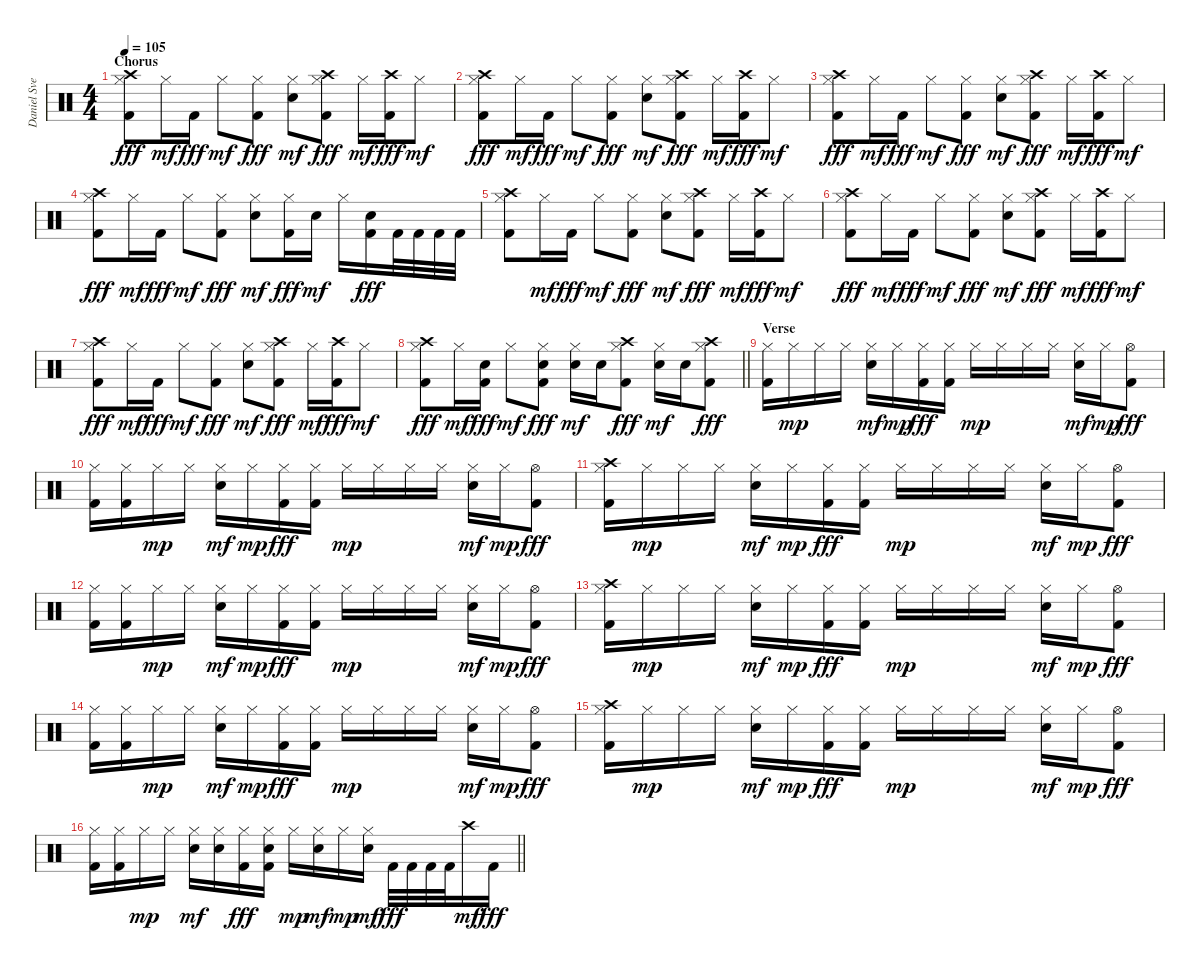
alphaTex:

\track ("Daniel Svensson" "Daniel Sve") {instrument percussion}
\staff {score}
\articulation defaults
\ts (4 4)
\section ("" "Chorus")
\tempo 105
\clef neutral
\ks c
("Crash high (hit)" "Hi-Hat (closed)" "Kick (hit) 2").8{dy fff} "Hi-Hat (closed)".16{dy mf} "Kick (hit) 2".16{dy fff} "Hi-Hat (closed)".8{dy mf} ("Hi-Hat (closed)" "Kick (hit) 2").8{dy fff} ("Hi-Hat (closed)" "Electric Snare (hit)").8{dy mf} ("Crash high (hit)" "Hi-Hat (closed)" "Kick (hit) 2").8{dy fff} "Hi-Hat (closed)".16{dy mf} ("Crash high (hit)" "Kick (hit) 2").16{dy fff} "Hi-Hat (closed)".8{dy mf} |
("Crash high (hit)" "Hi-Hat (closed)" "Kick (hit) 2").8{dy fff} "Hi-Hat (closed)".16{dy mf} "Kick (hit) 2".16{dy fff} "Hi-Hat (closed)".8{dy mf} ("Hi-Hat (closed)" "Kick (hit) 2").8{dy fff} ("Hi-Hat (closed)" "Electric Snare (hit)").8{dy mf} ("Crash high (hit)" "Hi-Hat (closed)" "Kick (hit) 2").8{dy fff} "Hi-Hat (closed)".16{dy mf} ("Crash high (hit)" "Kick (hit) 2").16{dy fff} "Hi-Hat (closed)".8{dy mf} |
("Crash high (hit)" "Hi-Hat (closed)" "Kick (hit) 2").8{dy fff} "Hi-Hat (closed)".16{dy mf} "Kick (hit) 2".16{dy fff} "Hi-Hat (closed)".8{dy mf} ("Hi-Hat (closed)" "Kick (hit) 2").8{dy fff} ("Hi-Hat (closed)" "Electric Snare (hit)").8{dy mf} ("Crash high (hit)" "Hi-Hat (closed)" "Kick (hit) 2").8{dy fff} "Hi-Hat (closed)".16{dy mf} ("Crash high (hit)" "Kick (hit) 2").16{dy fff} "Hi-Hat (closed)".8{dy mf} |
("Crash high (hit)" "Hi-Hat (closed)" "Kick (hit) 2").8{dy fff} "Hi-Hat (closed)".16{dy mf} "Kick (hit) 2".16{dy fff} "Hi-Hat (closed)".8{dy mf} ("Hi-Hat (closed)" "Kick (hit) 2").8{dy fff} ("Hi-Hat (closed)" "Electric Snare (hit)").8{dy mf} ("Hi-Hat (closed)" "Kick (hit) 2").16{dy fff} "Electric Snare (hit)".16{dy mf} "Hi-Hat (closed)".16 ("Electric Snare (hit)" "Kick (hit) 2").16{dy fff} "Kick (hit) 2".32 "Kick (hit) 2".32 "Kick (hit) 2".32 "Kick (hit) 2".32 |
("Crash high (hit)" "Hi-Hat (closed)" "Kick (hit) 2").8 "Hi-Hat (closed)".16{dy mf} "Kick (hit) 2".16{dy fff} "Hi-Hat (closed)".8{dy mf} ("Hi-Hat (closed)" "Kick (hit) 2").8{dy fff} ("Hi-Hat (closed)" "Electric Snare (hit)").8{dy mf} ("Crash high (hit)" "Hi-Hat (closed)" "Kick (hit) 2").8{dy fff} "Hi-Hat (closed)".16{dy mf} ("Crash high (hit)" "Kick (hit) 2").16{dy fff} "Hi-Hat (closed)".8{dy mf} |
("Crash high (hit)" "Hi-Hat (closed)" "Kick (hit) 2").8{dy fff} "Hi-Hat (closed)".16{dy mf} "Kick (hit) 2".16{dy fff} "Hi-Hat (closed)".8{dy mf} ("Hi-Hat (closed)" "Kick (hit) 2").8{dy fff} ("Hi-Hat (closed)" "Electric Snare (hit)").8{dy mf} ("Crash high (hit)" "Hi-Hat (closed)" "Kick (hit) 2").8{dy fff} "Hi-Hat (closed)".16{dy mf} ("Crash high (hit)" "Kick (hit) 2").16{dy fff} "Hi-Hat (closed)".8{dy mf} |
("Crash high (hit)" "Hi-Hat (closed)" "Kick (hit) 2").8{dy fff} "Hi-Hat (closed)".16{dy mf} "Kick (hit) 2".16{dy fff} "Hi-Hat (closed)".8{dy mf} ("Hi-Hat (closed)" "Kick (hit) 2").8{dy fff} ("Hi-Hat (closed)" "Electric Snare (hit)").8{dy mf} ("Crash high (hit)" "Hi-Hat (closed)" "Kick (hit) 2").8{dy fff} "Hi-Hat (closed)".16{dy mf} ("Crash high (hit)" "Kick (hit) 2").16{dy fff} "Hi-Hat (closed)".8{dy mf} |
\barLineRight lightlight
("Crash high (hit)" "Hi-Hat (closed)" "Kick (hit) 2").8{dy fff} "Hi-Hat (closed)".16{dy mf} ("Electric Snare (hit)" "Kick (hit) 2").16{dy fff} "Hi-Hat (closed)".8{dy mf} ("Hi-Hat (closed)" "Electric Snare (hit)" "Kick (hit) 2").8{dy fff} ("Hi-Hat (closed)" "Electric Snare (hit)").16{dy mf} "Electric Snare (hit)".16 ("Crash high (hit)" "Hi-Hat (closed)" "Kick (hit) 2").8{dy fff} ("Hi-Hat (closed)" "Electric Snare (hit)").16{dy mf} "Electric Snare (hit)".16 ("Crash high (hit)" "Hi-Hat (closed)" "Kick (hit) 2").8{dy fff} |
\section ("" "Verse")
("Hi-Hat (closed)" "Kick (hit) 2").16 "Hi-Hat (closed)".16{dy mp} "Hi-Hat (closed)".16 "Hi-Hat (closed)".16 ("Hi-Hat (closed)" "Electric Snare (hit)").16{dy mf} "Hi-Hat (closed)".16{dy mp} ("Hi-Hat (closed)" "Kick (hit) 2").16{dy fff} ("Hi-Hat (closed)" "Kick (hit) 2").16 "Hi-Hat (closed)".16{dy mp} "Hi-Hat (closed)".16 "Hi-Hat (closed)".16 "Hi-Hat (closed)".16 ("Hi-Hat (closed)" "Electric Snare (hit)").16{dy mf} "Hi-Hat (closed)".16{dy mp} ("Hi-Hat (open)" "Kick (hit) 2").8{dy fff} |
("Hi-Hat (closed)" "Kick (hit) 2").16 ("Hi-Hat (closed)" "Kick (hit) 2").16 "Hi-Hat (closed)".16{dy mp} "Hi-Hat (closed)".16 ("Hi-Hat (closed)" "Electric Snare (hit)").16{dy mf} "Hi-Hat (closed)".16{dy mp} ("Hi-Hat (closed)" "Kick (hit) 2").16{dy fff} ("Hi-Hat (closed)" "Kick (hit) 2").16 "Hi-Hat (closed)".16{dy mp} "Hi-Hat (closed)".16 "Hi-Hat (closed)".16 "Hi-Hat (closed)".16 ("Hi-Hat (closed)" "Electric Snare (hit)").16{dy mf} "Hi-Hat (closed)".16{dy mp} ("Hi-Hat (open)" "Kick (hit) 2").8{dy fff} |
("Crash high (hit)" "Hi-Hat (closed)" "Kick (hit) 2").16 "Hi-Hat (closed)".16{dy mp} "Hi-Hat (closed)".16 "Hi-Hat (closed)".16 ("Hi-Hat (closed)" "Electric Snare (hit)").16{dy mf} "Hi-Hat (closed)".16{dy mp} ("Hi-Hat (closed)" "Kick (hit) 2").16{dy fff} ("Hi-Hat (closed)" "Kick (hit) 2").16 "Hi-Hat (closed)".16{dy mp} "Hi-Hat (closed)".16 "Hi-Hat (closed)".16 "Hi-Hat (closed)".16 ("Hi-Hat (closed)" "Electric Snare (hit)").16{dy mf} "Hi-Hat (closed)".16{dy mp} ("Hi-Hat (open)" "Kick (hit) 2").8{dy fff} |
("Hi-Hat (closed)" "Kick (hit) 2").16 ("Hi-Hat (closed)" "Kick (hit) 2").16 "Hi-Hat (closed)".16{dy mp} "Hi-Hat (closed)".16 ("Hi-Hat (closed)" "Electric Snare (hit)").16{dy mf} "Hi-Hat (closed)".16{dy mp} ("Hi-Hat (closed)" "Kick (hit) 2").16{dy fff} ("Hi-Hat (closed)" "Kick (hit) 2").16 "Hi-Hat (closed)".16{dy mp} "Hi-Hat (closed)".16 "Hi-Hat (closed)".16 "Hi-Hat (closed)".16 ("Hi-Hat (closed)" "Electric Snare (hit)").16{dy mf} "Hi-Hat (closed)".16{dy mp} ("Hi-Hat (open)" "Kick (hit) 2").8{dy fff} |
("Crash high (hit)" "Hi-Hat (closed)" "Kick (hit) 2").16 "Hi-Hat (closed)".16{dy mp} "Hi-Hat (closed)".16 "Hi-Hat (closed)".16 ("Hi-Hat (closed)" "Electric Snare (hit)").16{dy mf} "Hi-Hat (closed)".16{dy mp} ("Hi-Hat (closed)" "Kick (hit) 2").16{dy fff} ("Hi-Hat (closed)" "Kick (hit) 2").16 "Hi-Hat (closed)".16{dy mp} "Hi-Hat (closed)".16 "Hi-Hat (closed)".16 "Hi-Hat (closed)".16 ("Hi-Hat (closed)" "Electric Snare (hit)").16{dy mf} "Hi-Hat (closed)".16{dy mp} ("Hi-Hat (open)" "Kick (hit) 2").8{dy fff} |
("Hi-Hat (closed)" "Kick (hit) 2").16 ("Hi-Hat (closed)" "Kick (hit) 2").16 "Hi-Hat (closed)".16{dy mp} "Hi-Hat (closed)".16 ("Hi-Hat (closed)" "Electric Snare (hit)").16{dy mf} "Hi-Hat (closed)".16{dy mp} ("Hi-Hat (closed)" "Kick (hit) 2").16{dy fff} ("Hi-Hat (closed)" "Kick (hit) 2").16 "Hi-Hat (closed)".16{dy mp} "Hi-Hat (closed)".16 "Hi-Hat (closed)".16 "Hi-Hat (closed)".16 ("Hi-Hat (closed)" "Electric Snare (hit)").16{dy mf} "Hi-Hat (closed)".16{dy mp} ("Hi-Hat (open)" "Kick (hit) 2").8{dy fff} |
("Crash high (hit)" "Hi-Hat (closed)" "Kick (hit) 2").16 "Hi-Hat (closed)".16{dy mp} "Hi-Hat (closed)".16 "Hi-Hat (closed)".16 ("Hi-Hat (closed)" "Electric Snare (hit)").16{dy mf} "Hi-Hat (closed)".16{dy mp} ("Hi-Hat (closed)" "Kick (hit) 2").16{dy fff} ("Hi-Hat (closed)" "Kick (hit) 2").16 "Hi-Hat (closed)".16{dy mp} "Hi-Hat (closed)".16 "Hi-Hat (closed)".16 "Hi-Hat (closed)".16 ("Hi-Hat (closed)" "Electric Snare (hit)").16{dy mf} "Hi-Hat (closed)".16{dy mp} ("Hi-Hat (open)" "Kick (hit) 2").8{dy fff} |
\barLineRight lightlight
("Hi-Hat (closed)" "Kick (hit) 2").16 ("Hi-Hat (closed)" "Kick (hit) 2").16 "Hi-Hat (closed)".16{dy mp} "Hi-Hat (closed)".16 ("Hi-Hat (closed)" "Electric Snare (hit)").16{dy mf} ("Hi-Hat (closed)" "Electric Snare (hit)").16 ("Hi-Hat (closed)" "Kick (hit) 2").16{dy fff} ("Hi-Hat (closed)" "Electric Snare (hit)" "Kick (hit) 2").16 "Hi-Hat (closed)".16{dy mp} ("Hi-Hat (closed)" "Electric Snare (hit)").16{dy mf} "Hi-Hat (closed)".16{dy mp} ("Hi-Hat (closed)" "Electric Snare (hit)").16{dy mf} "Kick (hit) 2".32{dy fff} "Kick (hit) 2".32 "Kick (hit) 2".32 "Kick (hit) 2".32 "Crash high (hit)".16{dy mf} "Kick (hit) 2".16{dy fff}
